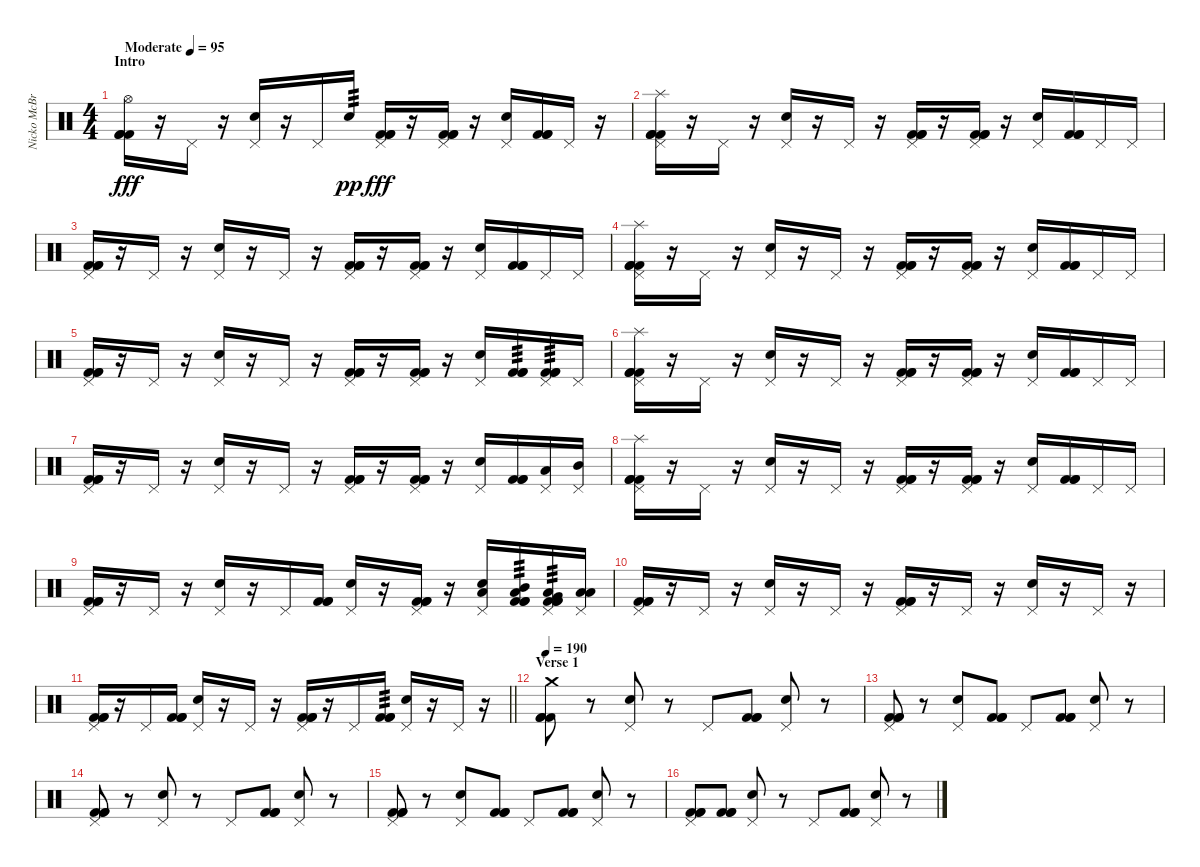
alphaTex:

\track ("Nicko McBrain" "Nicko McBr") {instrument percussion}
\staff {score}
\articulation defaults
\ts (4 4)
\section ("" "Intro")
\tempo (95 "Moderate")
\clef neutral
\ks c
("Hi-Hat (open)" "Kick (hit) 2" "Kick (hit) 2" "Kick (hit) 2").16{dy fff} r.16 "Pedal Hi-Hat (hit)".16 r.16 ("Snare (hit) 2" "Pedal Hi-Hat (hit)").16 r.16 "Pedal Hi-Hat (hit)".16 "Snare (hit) 2".16{tp 3 dy pp} ("Pedal Hi-Hat (hit)" "Kick (hit) 2" "Kick (hit) 2" "Kick (hit) 2").16{dy fff} r.16 ("Pedal Hi-Hat (hit)" "Kick (hit) 2" "Kick (hit) 2" "Kick (hit) 2").16 r.16 ("Snare (hit) 2" "Pedal Hi-Hat (hit)").16 ("Kick (hit) 2" "Kick (hit) 2" "Kick (hit) 2").16 "Pedal Hi-Hat (hit)".16 r.16 |
("Splash (hit)" "Pedal Hi-Hat (hit)" "Kick (hit) 2" "Kick (hit) 2" "Kick (hit) 2").16 r.16 "Pedal Hi-Hat (hit)".16 r.16 ("Snare (hit) 2" "Pedal Hi-Hat (hit)").16 r.16 "Pedal Hi-Hat (hit)".16 r.16 ("Pedal Hi-Hat (hit)" "Kick (hit) 2" "Kick (hit) 2" "Kick (hit) 2").16 r.16 ("Pedal Hi-Hat (hit)" "Kick (hit) 2" "Kick (hit) 2" "Kick (hit) 2").16 r.16 ("Snare (hit) 2" "Pedal Hi-Hat (hit)").16 ("Kick (hit) 2" "Kick (hit) 2" "Kick (hit) 2").16 "Pedal Hi-Hat (hit)".16 "Pedal Hi-Hat (hit)".16 |
("Pedal Hi-Hat (hit)" "Kick (hit) 2" "Kick (hit) 2" "Kick (hit) 2").16 r.16 "Pedal Hi-Hat (hit)".16 r.16 ("Snare (hit) 2" "Pedal Hi-Hat (hit)").16 r.16 "Pedal Hi-Hat (hit)".16 r.16 ("Pedal Hi-Hat (hit)" "Kick (hit) 2" "Kick (hit) 2" "Kick (hit) 2").16 r.16 ("Pedal Hi-Hat (hit)" "Kick (hit) 2" "Kick (hit) 2" "Kick (hit) 2").16 r.16 ("Snare (hit) 2" "Pedal Hi-Hat (hit)").16 ("Kick (hit) 2" "Kick (hit) 2" "Kick (hit) 2").16 "Pedal Hi-Hat (hit)".16 "Pedal Hi-Hat (hit)".16 |
("Splash (hit)" "Pedal Hi-Hat (hit)" "Kick (hit) 2" "Kick (hit) 2" "Kick (hit) 2").16 r.16 "Pedal Hi-Hat (hit)".16 r.16 ("Snare (hit) 2" "Pedal Hi-Hat (hit)").16 r.16 "Pedal Hi-Hat (hit)".16 r.16 ("Pedal Hi-Hat (hit)" "Kick (hit) 2" "Kick (hit) 2" "Kick (hit) 2").16 r.16 ("Pedal Hi-Hat (hit)" "Kick (hit) 2" "Kick (hit) 2" "Kick (hit) 2").16 r.16 ("Snare (hit) 2" "Pedal Hi-Hat (hit)").16 ("Kick (hit) 2" "Kick (hit) 2" "Kick (hit) 2").16 "Pedal Hi-Hat (hit)".16 "Pedal Hi-Hat (hit)".16 |
("Pedal Hi-Hat (hit)" "Kick (hit) 2" "Kick (hit) 2" "Kick (hit) 2").16 r.16 "Pedal Hi-Hat (hit)".16 r.16 ("Snare (hit) 2" "Pedal Hi-Hat (hit)").16 r.16 "Pedal Hi-Hat (hit)".16 r.16 ("Pedal Hi-Hat (hit)" "Kick (hit) 2" "Kick (hit) 2" "Kick (hit) 2").16 r.16 ("Pedal Hi-Hat (hit)" "Kick (hit) 2" "Kick (hit) 2" "Kick (hit) 2").16 r.16 ("Snare (hit) 2" "Pedal Hi-Hat (hit)").16 ("Kick (hit) 2" "Kick (hit) 2" "Kick (hit) 2").16{tp 3} ("Pedal Hi-Hat (hit)" "Kick (hit) 2" "Kick (hit) 2" "Kick (hit) 2").16{tp 3} "Pedal Hi-Hat (hit)".16 |
("Splash (hit)" "Pedal Hi-Hat (hit)" "Kick (hit) 2" "Kick (hit) 2" "Kick (hit) 2").16 r.16 "Pedal Hi-Hat (hit)".16 r.16 ("Snare (hit) 2" "Pedal Hi-Hat (hit)").16 r.16 "Pedal Hi-Hat (hit)".16 r.16 ("Pedal Hi-Hat (hit)" "Kick (hit) 2" "Kick (hit) 2" "Kick (hit) 2").16 r.16 ("Pedal Hi-Hat (hit)" "Kick (hit) 2" "Kick (hit) 2" "Kick (hit) 2").16 r.16 ("Snare (hit) 2" "Pedal Hi-Hat (hit)").16 ("Kick (hit) 2" "Kick (hit) 2" "Kick (hit) 2").16 "Pedal Hi-Hat (hit)".16 "Pedal Hi-Hat (hit)".16 |
("Pedal Hi-Hat (hit)" "Kick (hit) 2" "Kick (hit) 2" "Kick (hit) 2").16 r.16 "Pedal Hi-Hat (hit)".16 r.16 ("Snare (hit) 2" "Pedal Hi-Hat (hit)").16 r.16 "Pedal Hi-Hat (hit)".16 r.16 ("Pedal Hi-Hat (hit)" "Kick (hit) 2" "Kick (hit) 2" "Kick (hit) 2").16 r.16 ("Pedal Hi-Hat (hit)" "Kick (hit) 2" "Kick (hit) 2" "Kick (hit) 2").16 r.16 ("Snare (hit) 2" "Pedal Hi-Hat (hit)").16 ("Kick (hit) 2" "Kick (hit) 2" "Kick (hit) 2").16 ("Low Tom (hit)" "Pedal Hi-Hat (hit)").16 ("Mid Tom (hit)" "Pedal Hi-Hat (hit)").16 |
("Splash (hit)" "Pedal Hi-Hat (hit)" "Kick (hit) 2" "Kick (hit) 2" "Kick (hit) 2").16 r.16 "Pedal Hi-Hat (hit)".16 r.16 ("Snare (hit) 2" "Pedal Hi-Hat (hit)").16 r.16 "Pedal Hi-Hat (hit)".16 r.16 ("Pedal Hi-Hat (hit)" "Kick (hit) 2" "Kick (hit) 2" "Kick (hit) 2").16 r.16 ("Pedal Hi-Hat (hit)" "Kick (hit) 2" "Kick (hit) 2" "Kick (hit) 2").16 r.16 ("Snare (hit) 2" "Pedal Hi-Hat (hit)").16 ("Kick (hit) 2" "Kick (hit) 2" "Kick (hit) 2").16 "Pedal Hi-Hat (hit)".16 "Pedal Hi-Hat (hit)".16 |
("Pedal Hi-Hat (hit)" "Kick (hit) 2" "Kick (hit) 2" "Kick (hit) 2").16 r.16 "Pedal Hi-Hat (hit)".16 r.16 ("Snare (hit) 2" "Pedal Hi-Hat (hit)").16 r.16 "Pedal Hi-Hat (hit)".16 ("Kick (hit) 2" "Kick (hit) 2" "Kick (hit) 2").16 ("Snare (hit) 2" "Pedal Hi-Hat (hit)").16 r.16 ("Pedal Hi-Hat (hit)" "Kick (hit) 2" "Kick (hit) 2" "Kick (hit) 2").16 r.16 ("Snare (hit) 2" "Low Tom (hit)" "Pedal Hi-Hat (hit)").16 ("Low Tom (hit)" "Mid Tom (hit)" "Kick (hit) 2" "Kick (hit) 2" "Kick (hit) 2").16{tp 3} ("Low Tom (hit)" "Very Low Tom (hit)" "Pedal Hi-Hat (hit)" "Kick (hit) 2" "Kick (hit) 2" "Kick (hit) 2").16{tp 3} ("Low Tom (hit)" "Low Tom (hit)" "Pedal Hi-Hat (hit)").16 |
("Pedal Hi-Hat (hit)" "Kick (hit) 2" "Kick (hit) 2" "Kick (hit) 2").16 r.16 "Pedal Hi-Hat (hit)".16 r.16 ("Snare (hit) 2" "Pedal Hi-Hat (hit)").16 r.16 "Pedal Hi-Hat (hit)".16 r.16 ("Pedal Hi-Hat (hit)" "Kick (hit) 2" "Kick (hit) 2" "Kick (hit) 2").16 r.16 "Pedal Hi-Hat (hit)".16 r.16 ("Snare (hit) 2" "Pedal Hi-Hat (hit)").16 r.16 "Pedal Hi-Hat (hit)".16 r.16 |
\barLineRight lightlight
("Pedal Hi-Hat (hit)" "Kick (hit) 2" "Kick (hit) 2" "Kick (hit) 2").16 r.16 "Pedal Hi-Hat (hit)".16 ("Kick (hit) 2" "Kick (hit) 2" "Kick (hit) 2").16 ("Snare (hit) 2" "Pedal Hi-Hat (hit)").16 r.16 "Pedal Hi-Hat (hit)".16 r.16 ("Pedal Hi-Hat (hit)" "Kick (hit) 2" "Kick (hit) 2" "Kick (hit) 2").16 r.16 "Pedal Hi-Hat (hit)".16 ("Kick (hit) 2" "Kick (hit) 2" "Kick (hit) 2").16{tp 3} ("Snare (hit) 2" "Pedal Hi-Hat (hit)").16 r.16 "Pedal Hi-Hat (hit)".16 r.16 |
\section ("" "Verse 1")
\tempo 190
("Crash medium (hit)" "Kick (hit) 2" "Kick (hit) 2" "Kick (hit) 2").8 r.8 ("Snare (hit) 2" "Pedal Hi-Hat (hit)").8 r.8 "Pedal Hi-Hat (hit)".8 ("Kick (hit) 2" "Kick (hit) 2" "Kick (hit) 2").8 ("Snare (hit) 2" "Pedal Hi-Hat (hit)").8 r.8 |
("Pedal Hi-Hat (hit)" "Kick (hit) 2" "Kick (hit) 2" "Kick (hit) 2").8 r.8 ("Snare (hit) 2" "Pedal Hi-Hat (hit)").8 ("Kick (hit) 2" "Kick (hit) 2" "Kick (hit) 2").8 "Pedal Hi-Hat (hit)".8 ("Kick (hit) 2" "Kick (hit) 2" "Kick (hit) 2").8 ("Snare (hit) 2" "Pedal Hi-Hat (hit)").8 r.8 |
("Pedal Hi-Hat (hit)" "Kick (hit) 2" "Kick (hit) 2" "Kick (hit) 2").8 r.8 ("Snare (hit) 2" "Pedal Hi-Hat (hit)").8 r.8 "Pedal Hi-Hat (hit)".8 ("Kick (hit) 2" "Kick (hit) 2" "Kick (hit) 2").8 ("Snare (hit) 2" "Pedal Hi-Hat (hit)").8 r.8 |
("Pedal Hi-Hat (hit)" "Kick (hit) 2" "Kick (hit) 2" "Kick (hit) 2").8 r.8 ("Snare (hit) 2" "Pedal Hi-Hat (hit)").8 ("Kick (hit) 2" "Kick (hit) 2" "Kick (hit) 2").8 "Pedal Hi-Hat (hit)".8 ("Kick (hit) 2" "Kick (hit) 2" "Kick (hit) 2").8 ("Snare (hit) 2" "Pedal Hi-Hat (hit)").8 r.8 |
("Pedal Hi-Hat (hit)" "Kick (hit) 2" "Kick (hit) 2" "Kick (hit) 2").8 ("Kick (hit) 2" "Kick (hit) 2" "Kick (hit) 2").8 ("Snare (hit) 2" "Pedal Hi-Hat (hit)").8 r.8 "Pedal Hi-Hat (hit)".8 ("Kick (hit) 2" "Kick (hit) 2" "Kick (hit) 2").8 ("Snare (hit) 2" "Pedal Hi-Hat (hit)").8 r.8
